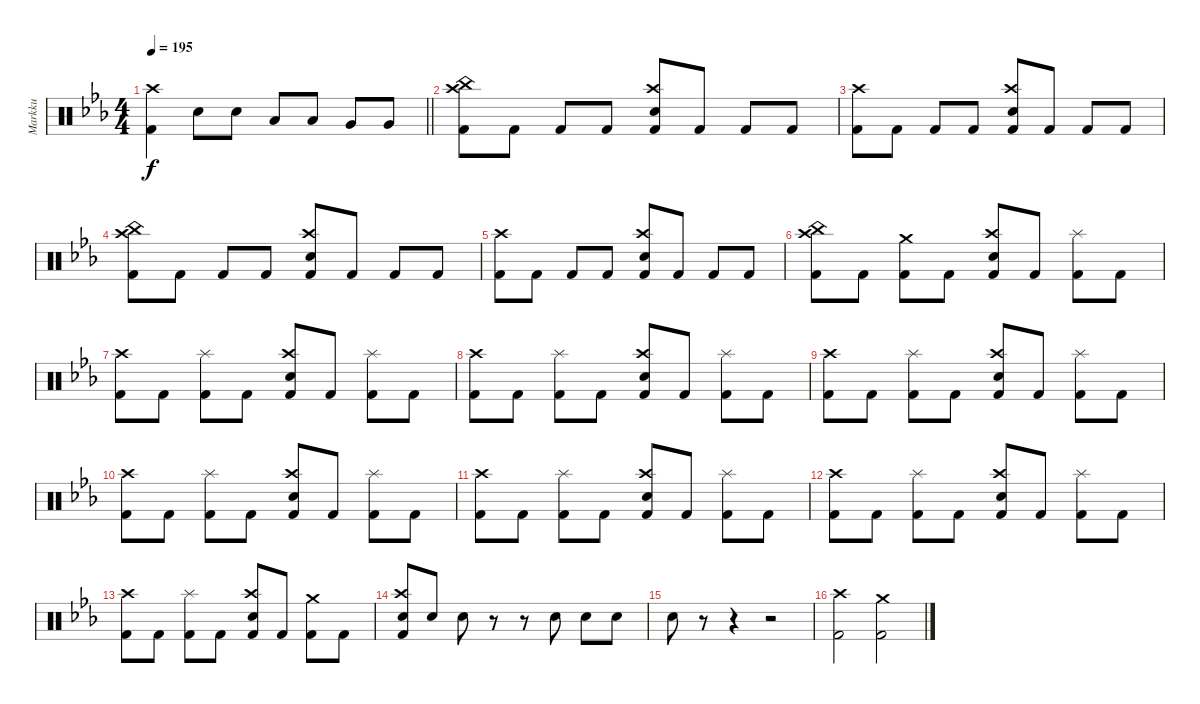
\track ("Markku" "Markku") {instrument percussion}
\staff {score}
\articulation defaults
\ts (4 4)
\tempo 195
\clef neutral
\barLineRight lightlight
\ks cminor
("Kick (hit) 2" "Crash high (hit)").4{dy f} "Snare (hit) 2".8 "Snare (hit) 2".8 "Low Tom (hit)".8 "Low Tom (hit)".8 "Very Low Tom (hit)".8 "Very Low Tom (hit)".8 |
("Kick (hit) 2" "Crash high (hit)" "China (hit)").8 "Kick (hit) 2".8 "Kick (hit) 2".8 "Kick (hit) 2".8 ("Kick (hit) 2" "Crash high (hit)" "Snare (hit) 2").8 "Kick (hit) 2".8 "Kick (hit) 2".8 "Kick (hit) 2".8 |
("Kick (hit) 2" "Crash high (hit)").8 "Kick (hit) 2".8 "Kick (hit) 2".8 "Kick (hit) 2".8 ("Kick (hit) 2" "Crash high (hit)" "Snare (hit) 2").8 "Kick (hit) 2".8 "Kick (hit) 2".8 "Kick (hit) 2".8 |
("Kick (hit) 2" "Crash high (hit)" "China (hit)").8 "Kick (hit) 2".8 "Kick (hit) 2".8 "Kick (hit) 2".8 ("Kick (hit) 2" "Crash high (hit)" "Snare (hit) 2").8 "Kick (hit) 2".8 "Kick (hit) 2".8 "Kick (hit) 2".8 |
("Kick (hit) 2" "Crash high (hit)").8 "Kick (hit) 2".8 "Kick (hit) 2".8 "Kick (hit) 2".8 ("Kick (hit) 2" "Crash high (hit)" "Snare (hit) 2").8 "Kick (hit) 2".8 "Kick (hit) 2".8 "Kick (hit) 2".8 |
("Kick (hit) 2" "Crash high (hit)" "China (hit)").8 "Kick (hit) 2".8 ("Kick (hit) 2" "Crash medium (hit)").8 "Kick (hit) 2".8 ("Kick (hit) 2" "Crash high (hit)" "Snare (hit) 2").8 "Kick (hit) 2".8 ("Kick (hit) 2" "Splash (hit)").8 "Kick (hit) 2".8 |
("Kick (hit) 2" "Crash high (hit)").8 "Kick (hit) 2".8 ("Kick (hit) 2" "Splash (hit)").8 "Kick (hit) 2".8 ("Kick (hit) 2" "Crash high (hit)" "Snare (hit) 2").8 "Kick (hit) 2".8 ("Kick (hit) 2" "Splash (hit)").8 "Kick (hit) 2".8 |
("Kick (hit) 2" "Crash high (hit)").8 "Kick (hit) 2".8 ("Kick (hit) 2" "Splash (hit)").8 "Kick (hit) 2".8 ("Kick (hit) 2" "Crash high (hit)" "Snare (hit) 2").8 "Kick (hit) 2".8 ("Kick (hit) 2" "Splash (hit)").8 "Kick (hit) 2".8 |
("Kick (hit) 2" "Crash high (hit)").8 "Kick (hit) 2".8 ("Kick (hit) 2" "Splash (hit)").8 "Kick (hit) 2".8 ("Kick (hit) 2" "Crash high (hit)" "Snare (hit) 2").8 "Kick (hit) 2".8 ("Kick (hit) 2" "Splash (hit)").8 "Kick (hit) 2".8 |
("Kick (hit) 2" "Crash high (hit)").8 "Kick (hit) 2".8 ("Kick (hit) 2" "Splash (hit)").8 "Kick (hit) 2".8 ("Kick (hit) 2" "Crash high (hit)" "Snare (hit) 2").8 "Kick (hit) 2".8 ("Kick (hit) 2" "Splash (hit)").8 "Kick (hit) 2".8 |
("Kick (hit) 2" "Crash high (hit)").8 "Kick (hit) 2".8 ("Kick (hit) 2" "Splash (hit)").8 "Kick (hit) 2".8 ("Kick (hit) 2" "Crash high (hit)" "Snare (hit) 2").8 "Kick (hit) 2".8 ("Kick (hit) 2" "Splash (hit)").8 "Kick (hit) 2".8 |
("Kick (hit) 2" "Crash high (hit)").8 "Kick (hit) 2".8 ("Kick (hit) 2" "Splash (hit)").8 "Kick (hit) 2".8 ("Kick (hit) 2" "Crash high (hit)" "Snare (hit) 2").8 "Kick (hit) 2".8 ("Kick (hit) 2" "Splash (hit)").8 "Kick (hit) 2".8 |
("Kick (hit) 2" "Crash high (hit)").8 "Kick (hit) 2".8 ("Kick (hit) 2" "Splash (hit)").8 "Kick (hit) 2".8 ("Kick (hit) 2" "Crash high (hit)" "Snare (hit) 2").8 "Kick (hit) 2".8 ("Kick (hit) 2" "Crash medium (hit)").8 "Kick (hit) 2".8 |
("Kick (hit) 2" "Snare (hit) 2" "Crash high (hit)").8 "Snare (hit) 2".8 "Snare (hit) 2".8 r.8 r.8 "Snare (hit) 2".8 "Snare (hit) 2".8 "Snare (hit) 2".8 |
"Snare (hit) 2".8 r.8 r.4 r.2 |
("Kick (hit) 2" "Crash high (hit)").2 ("Kick (hit) 2" "Crash medium (hit)").2
